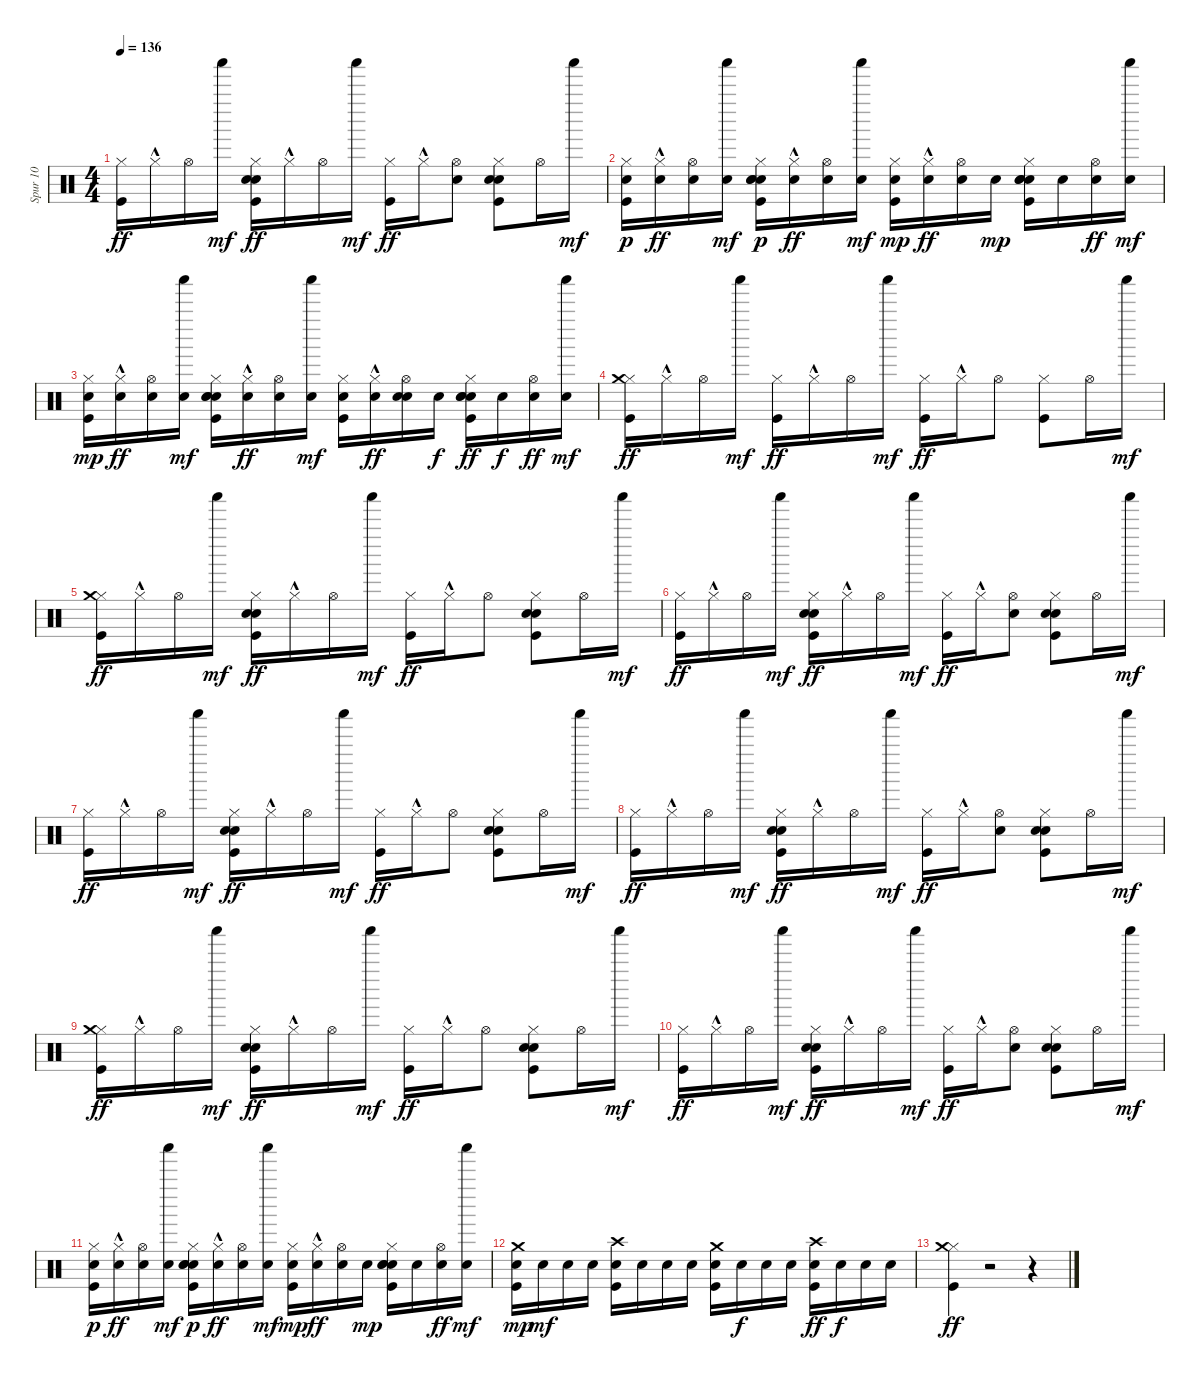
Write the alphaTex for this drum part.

\track ("Spur 10" "Spur 10") {instrument percussion}
\staff {score}
\articulation defaults
\ts (4 4)
\tempo 136
\clef neutral
\ks c
("Kick (hit)" "Hi-Hat (closed)").16{dy ff} "Hi-Hat (closed)"{hac}.16 "Hi-Hat (open)".16 "Shaker (hit)".16{dy mf} ("Kick (hit)" "Electric Snare (hit)" "Hi-Hat (closed)" "Hand Clap (hit)").16{dy ff} "Hi-Hat (closed)"{hac}.16 "Hi-Hat (open)".16 "Shaker (hit)".16{dy mf} ("Kick (hit)" "Hi-Hat (closed)").16{dy ff} "Hi-Hat (closed)"{hac}.16 ("Hi-Hat (open)" "Hand Clap (hit)").8 ("Kick (hit)" "Electric Snare (hit)" "Hi-Hat (closed)" "Hand Clap (hit)").8 "Hi-Hat (open)".16 "Shaker (hit)".16{dy mf} |
("Kick (hit)" "Snare (hit) 2" "Hi-Hat (closed)").16{dy p} ("Snare (hit) 2" "Hi-Hat (closed)"{hac}).16{dy ff} ("Snare (hit) 2" "Hi-Hat (open)").16 ("Snare (hit) 2" "Shaker (hit)").16{dy mf} ("Kick (hit)" "Electric Snare (hit)" "Snare (hit) 2" "Hi-Hat (closed)" "Hand Clap (hit)").16{dy p} ("Snare (hit) 2" "Hi-Hat (closed)"{hac}).16{dy ff} ("Snare (hit) 2" "Hi-Hat (open)").16 ("Snare (hit) 2" "Shaker (hit)").16{dy mf} ("Kick (hit)" "Snare (hit) 2" "Hi-Hat (closed)").16{dy mp} ("Snare (hit) 2" "Hi-Hat (closed)"{hac}).16{dy ff} ("Snare (hit) 2" "Hi-Hat (open)").16 "Snare (hit) 2".16{dy mp} ("Kick (hit)" "Electric Snare (hit)" "Snare (hit) 2" "Hi-Hat (closed)" "Hand Clap (hit)").16 "Snare (hit) 2".16 ("Snare (hit) 2" "Hi-Hat (open)").16{dy ff} ("Snare (hit) 2" "Shaker (hit)").16{dy mf} |
("Kick (hit)" "Snare (hit) 2" "Hi-Hat (closed)").16{dy mp} ("Snare (hit) 2" "Hi-Hat (closed)"{hac}).16{dy ff} ("Snare (hit) 2" "Hi-Hat (open)").16 ("Snare (hit) 2" "Shaker (hit)").16{dy mf} ("Kick (hit)" "Electric Snare (hit)" "Snare (hit) 2" "Hi-Hat (closed)" "Hand Clap (hit)").16 ("Snare (hit) 2" "Hi-Hat (closed)"{hac}).16{dy ff} ("Snare (hit) 2" "Hi-Hat (open)").16 ("Snare (hit) 2" "Shaker (hit)").16{dy mf} ("Kick (hit)" "Snare (hit) 2" "Hi-Hat (closed)").16 ("Snare (hit) 2" "Hi-Hat (closed)"{hac}).16{dy ff} ("Snare (hit) 2" "Hi-Hat (open)" "Hand Clap (hit)").16 "Snare (hit) 2".16{dy f} ("Kick (hit)" "Electric Snare (hit)" "Snare (hit) 2" "Hi-Hat (closed)" "Hand Clap (hit)").16{dy ff} "Snare (hit) 2".16{dy f} ("Snare (hit) 2" "Hi-Hat (open)").16{dy ff} ("Snare (hit) 2" "Shaker (hit)").16{dy mf} |
("Kick (hit)" "Hi-Hat (closed)" "Crash medium (hit)").16{dy ff} "Hi-Hat (closed)"{hac}.16 "Hi-Hat (open)".16 "Shaker (hit)".16{dy mf} ("Kick (hit)" "Hi-Hat (closed)").16{dy ff} "Hi-Hat (closed)"{hac}.16 "Hi-Hat (open)".16 "Shaker (hit)".16{dy mf} ("Kick (hit)" "Hi-Hat (closed)").16{dy ff} "Hi-Hat (closed)"{hac}.16 "Hi-Hat (open)".8 ("Kick (hit)" "Hi-Hat (closed)").8 "Hi-Hat (open)".16 "Shaker (hit)".16{dy mf} |
("Kick (hit)" "Hi-Hat (closed)" "Crash medium (hit)").16{dy ff} "Hi-Hat (closed)"{hac}.16 "Hi-Hat (open)".16 "Shaker (hit)".16{dy mf} ("Kick (hit)" "Electric Snare (hit)" "Hi-Hat (closed)" "Hand Clap (hit)").16{dy ff} "Hi-Hat (closed)"{hac}.16 "Hi-Hat (open)".16 "Shaker (hit)".16{dy mf} ("Kick (hit)" "Hi-Hat (closed)").16{dy ff} "Hi-Hat (closed)"{hac}.16 "Hi-Hat (open)".8 ("Kick (hit)" "Electric Snare (hit)" "Hi-Hat (closed)" "Hand Clap (hit)").8 "Hi-Hat (open)".16 "Shaker (hit)".16{dy mf} |
("Kick (hit)" "Hi-Hat (closed)").16{dy ff} "Hi-Hat (closed)"{hac}.16 "Hi-Hat (open)".16 "Shaker (hit)".16{dy mf} ("Kick (hit)" "Electric Snare (hit)" "Hi-Hat (closed)" "Hand Clap (hit)").16{dy ff} "Hi-Hat (closed)"{hac}.16 "Hi-Hat (open)".16 "Shaker (hit)".16{dy mf} ("Kick (hit)" "Hi-Hat (closed)").16{dy ff} "Hi-Hat (closed)"{hac}.16 ("Hi-Hat (open)" "Hand Clap (hit)").8 ("Kick (hit)" "Electric Snare (hit)" "Hi-Hat (closed)" "Hand Clap (hit)").8 "Hi-Hat (open)".16 "Shaker (hit)".16{dy mf} |
("Kick (hit)" "Hi-Hat (closed)").16{dy ff} "Hi-Hat (closed)"{hac}.16 "Hi-Hat (open)".16 "Shaker (hit)".16{dy mf} ("Kick (hit)" "Electric Snare (hit)" "Hi-Hat (closed)" "Hand Clap (hit)").16{dy ff} "Hi-Hat (closed)"{hac}.16 "Hi-Hat (open)".16 "Shaker (hit)".16{dy mf} ("Kick (hit)" "Hi-Hat (closed)").16{dy ff} "Hi-Hat (closed)"{hac}.16 "Hi-Hat (open)".8 ("Kick (hit)" "Electric Snare (hit)" "Hi-Hat (closed)" "Hand Clap (hit)").8 "Hi-Hat (open)".16 "Shaker (hit)".16{dy mf} |
("Kick (hit)" "Hi-Hat (closed)").16{dy ff} "Hi-Hat (closed)"{hac}.16 "Hi-Hat (open)".16 "Shaker (hit)".16{dy mf} ("Kick (hit)" "Electric Snare (hit)" "Hi-Hat (closed)" "Hand Clap (hit)").16{dy ff} "Hi-Hat (closed)"{hac}.16 "Hi-Hat (open)".16 "Shaker (hit)".16{dy mf} ("Kick (hit)" "Hi-Hat (closed)").16{dy ff} "Hi-Hat (closed)"{hac}.16 ("Hi-Hat (open)" "Hand Clap (hit)").8 ("Kick (hit)" "Electric Snare (hit)" "Hi-Hat (closed)" "Hand Clap (hit)").8 "Hi-Hat (open)".16 "Shaker (hit)".16{dy mf} |
("Kick (hit)" "Hi-Hat (closed)" "Crash medium (hit)").16{dy ff} "Hi-Hat (closed)"{hac}.16 "Hi-Hat (open)".16 "Shaker (hit)".16{dy mf} ("Kick (hit)" "Electric Snare (hit)" "Hi-Hat (closed)" "Hand Clap (hit)").16{dy ff} "Hi-Hat (closed)"{hac}.16 "Hi-Hat (open)".16 "Shaker (hit)".16{dy mf} ("Kick (hit)" "Hi-Hat (closed)").16{dy ff} "Hi-Hat (closed)"{hac}.16 "Hi-Hat (open)".8 ("Kick (hit)" "Electric Snare (hit)" "Hi-Hat (closed)" "Hand Clap (hit)").8 "Hi-Hat (open)".16 "Shaker (hit)".16{dy mf} |
("Kick (hit)" "Hi-Hat (closed)").16{dy ff} "Hi-Hat (closed)"{hac}.16 "Hi-Hat (open)".16 "Shaker (hit)".16{dy mf} ("Kick (hit)" "Electric Snare (hit)" "Hi-Hat (closed)" "Hand Clap (hit)").16{dy ff} "Hi-Hat (closed)"{hac}.16 "Hi-Hat (open)".16 "Shaker (hit)".16{dy mf} ("Kick (hit)" "Hi-Hat (closed)").16{dy ff} "Hi-Hat (closed)"{hac}.16 ("Hi-Hat (open)" "Hand Clap (hit)").8 ("Kick (hit)" "Electric Snare (hit)" "Hi-Hat (closed)" "Hand Clap (hit)").8 "Hi-Hat (open)".16 "Shaker (hit)".16{dy mf} |
("Kick (hit)" "Snare (hit) 2" "Hi-Hat (closed)").16{dy p} ("Snare (hit) 2" "Hi-Hat (closed)"{hac}).16{dy ff} ("Snare (hit) 2" "Hi-Hat (open)").16 ("Snare (hit) 2" "Shaker (hit)").16{dy mf} ("Kick (hit)" "Electric Snare (hit)" "Snare (hit) 2" "Hi-Hat (closed)" "Hand Clap (hit)").16{dy p} ("Snare (hit) 2" "Hi-Hat (closed)"{hac}).16{dy ff} ("Snare (hit) 2" "Hi-Hat (open)").16 ("Snare (hit) 2" "Shaker (hit)").16{dy mf} ("Kick (hit)" "Snare (hit) 2" "Hi-Hat (closed)").16{dy mp} ("Snare (hit) 2" "Hi-Hat (closed)"{hac}).16{dy ff} ("Snare (hit) 2" "Hi-Hat (open)").16 "Snare (hit) 2".16{dy mp} ("Kick (hit)" "Electric Snare (hit)" "Snare (hit) 2" "Hi-Hat (closed)" "Hand Clap (hit)").16 "Snare (hit) 2".16 ("Snare (hit) 2" "Hi-Hat (open)").16{dy ff} ("Snare (hit) 2" "Shaker (hit)").16{dy mf} |
("Kick (hit)" "Snare (hit) 2" "Crash medium (hit)").16{dy mp} "Snare (hit) 2".16{dy mf} "Snare (hit) 2".16 "Snare (hit) 2".16 ("Kick (hit)" "Snare (hit) 2" "Crash high (hit)").16 "Snare (hit) 2".16 "Snare (hit) 2".16 "Snare (hit) 2".16 ("Kick (hit)" "Snare (hit) 2" "Crash medium (hit)").16 "Snare (hit) 2".16{dy f} "Snare (hit) 2".16 "Snare (hit) 2".16 ("Kick (hit)" "Snare (hit) 2" "Crash high (hit)").16{dy ff} "Snare (hit) 2".16{dy f} "Snare (hit) 2".16 "Snare (hit) 2".16 |
("Kick (hit)" "Hi-Hat (closed)" "Crash medium (hit)").4{dy ff} r.2 r.4
